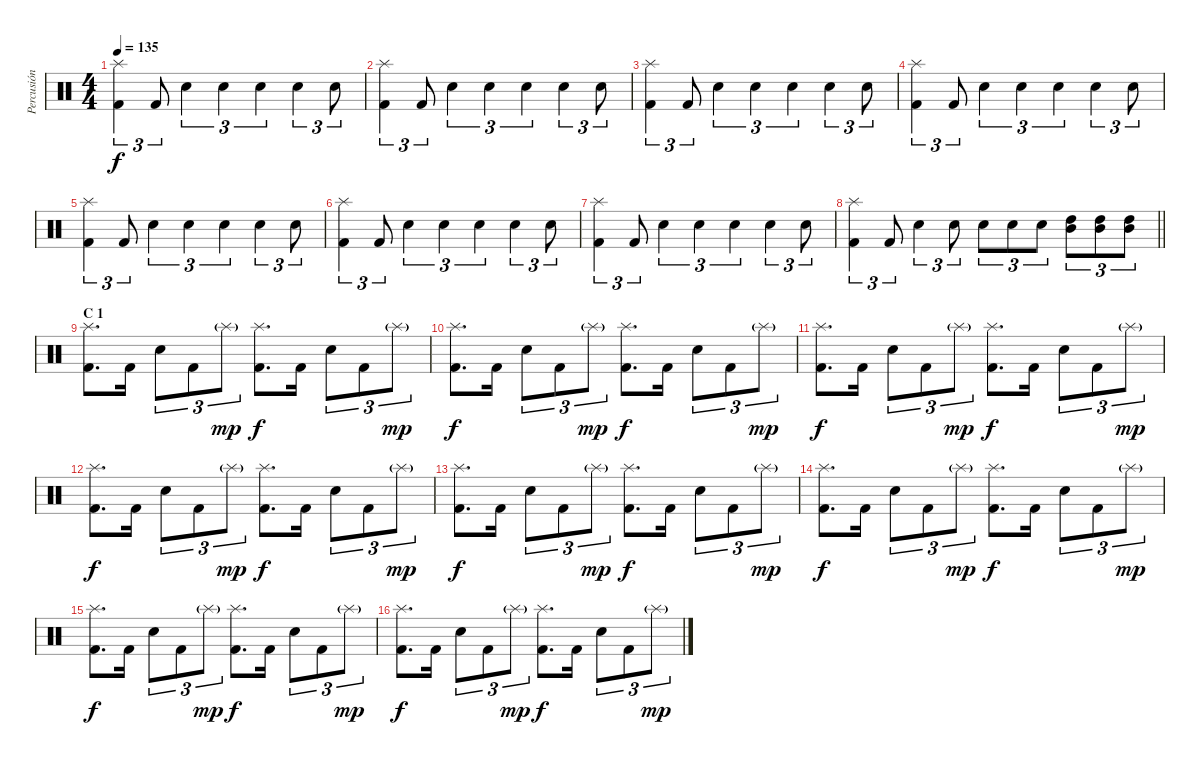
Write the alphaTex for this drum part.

\track ("Percusión" "Percusión") {instrument percussion}
\staff {score}
\articulation defaults
\ts (4 4)
\tempo 135
\clef neutral
\ks c
("Splash (hit)" "Kick (hit) 2").4{tu (3 2) dy f} "Kick (hit) 2".8{tu (3 2)} "Snare (hit) 2".4{tu (3 2)} "Snare (hit) 2".4{tu (3 2)} "Snare (hit) 2".4{tu (3 2)} "Snare (hit) 2".4{tu (3 2)} "Snare (hit) 2".8{tu (3 2)} |
("Splash (hit)" "Kick (hit) 2").4{tu (3 2)} "Kick (hit) 2".8{tu (3 2)} "Snare (hit) 2".4{tu (3 2)} "Snare (hit) 2".4{tu (3 2)} "Snare (hit) 2".4{tu (3 2)} "Snare (hit) 2".4{tu (3 2)} "Snare (hit) 2".8{tu (3 2)} |
("Splash (hit)" "Kick (hit) 2").4{tu (3 2)} "Kick (hit) 2".8{tu (3 2)} "Snare (hit) 2".4{tu (3 2)} "Snare (hit) 2".4{tu (3 2)} "Snare (hit) 2".4{tu (3 2)} "Snare (hit) 2".4{tu (3 2)} "Snare (hit) 2".8{tu (3 2)} |
("Splash (hit)" "Kick (hit) 2").4{tu (3 2)} "Kick (hit) 2".8{tu (3 2)} "Snare (hit) 2".4{tu (3 2)} "Snare (hit) 2".4{tu (3 2)} "Snare (hit) 2".4{tu (3 2)} "Snare (hit) 2".4{tu (3 2)} "Snare (hit) 2".8{tu (3 2)} |
("Splash (hit)" "Kick (hit) 2").4{tu (3 2)} "Kick (hit) 2".8{tu (3 2)} "Snare (hit) 2".4{tu (3 2)} "Snare (hit) 2".4{tu (3 2)} "Snare (hit) 2".4{tu (3 2)} "Snare (hit) 2".4{tu (3 2)} "Snare (hit) 2".8{tu (3 2)} |
("Splash (hit)" "Kick (hit) 2").4{tu (3 2)} "Kick (hit) 2".8{tu (3 2)} "Snare (hit) 2".4{tu (3 2)} "Snare (hit) 2".4{tu (3 2)} "Snare (hit) 2".4{tu (3 2)} "Snare (hit) 2".4{tu (3 2)} "Snare (hit) 2".8{tu (3 2)} |
("Splash (hit)" "Kick (hit) 2").4{tu (3 2)} "Kick (hit) 2".8{tu (3 2)} "Snare (hit) 2".4{tu (3 2)} "Snare (hit) 2".4{tu (3 2)} "Snare (hit) 2".4{tu (3 2)} "Snare (hit) 2".4{tu (3 2)} "Snare (hit) 2".8{tu (3 2)} |
\barLineRight lightlight
("Splash (hit)" "Kick (hit) 2").4{tu (3 2)} "Kick (hit) 2".8{tu (3 2)} "Snare (hit) 2".4{tu (3 2)} "Snare (hit) 2".8{tu (3 2)} "Snare (hit) 2".8{tu (3 2)} "Snare (hit) 2".8{tu (3 2)} "Snare (hit) 2".8{tu (3 2)} ("High Tom (hit)" "Mid Tom (hit)").8{tu (3 2)} ("High Tom (hit)" "Mid Tom (hit)").8{tu (3 2)} ("High Tom (hit)" "Mid Tom (hit)").8{tu (3 2)} |
\section ("" "C 1")
("Splash (hit)" "Kick (hit) 2").8{d} "Kick (hit) 2".16 "Snare (hit) 2".8{tu (3 2)} "Kick (hit) 2".8{tu (3 2)} "Splash (hit)"{g}.8{tu (3 2) dy mp} ("Splash (hit)" "Kick (hit) 2").8{d dy f} "Kick (hit) 2".16 "Snare (hit) 2".8{tu (3 2)} "Kick (hit) 2".8{tu (3 2)} "Splash (hit)"{g}.8{tu (3 2) dy mp} |
("Splash (hit)" "Kick (hit) 2").8{d dy f} "Kick (hit) 2".16 "Snare (hit) 2".8{tu (3 2)} "Kick (hit) 2".8{tu (3 2)} "Splash (hit)"{g}.8{tu (3 2) dy mp} ("Splash (hit)" "Kick (hit) 2").8{d dy f} "Kick (hit) 2".16 "Snare (hit) 2".8{tu (3 2)} "Kick (hit) 2".8{tu (3 2)} "Splash (hit)"{g}.8{tu (3 2) dy mp} |
("Splash (hit)" "Kick (hit) 2").8{d dy f} "Kick (hit) 2".16 "Snare (hit) 2".8{tu (3 2)} "Kick (hit) 2".8{tu (3 2)} "Splash (hit)"{g}.8{tu (3 2) dy mp} ("Splash (hit)" "Kick (hit) 2").8{d dy f} "Kick (hit) 2".16 "Snare (hit) 2".8{tu (3 2)} "Kick (hit) 2".8{tu (3 2)} "Splash (hit)"{g}.8{tu (3 2) dy mp} |
("Splash (hit)" "Kick (hit) 2").8{d dy f} "Kick (hit) 2".16 "Snare (hit) 2".8{tu (3 2)} "Kick (hit) 2".8{tu (3 2)} "Splash (hit)"{g}.8{tu (3 2) dy mp} ("Splash (hit)" "Kick (hit) 2").8{d dy f} "Kick (hit) 2".16 "Snare (hit) 2".8{tu (3 2)} "Kick (hit) 2".8{tu (3 2)} "Splash (hit)"{g}.8{tu (3 2) dy mp} |
("Splash (hit)" "Kick (hit) 2").8{d dy f} "Kick (hit) 2".16 "Snare (hit) 2".8{tu (3 2)} "Kick (hit) 2".8{tu (3 2)} "Splash (hit)"{g}.8{tu (3 2) dy mp} ("Splash (hit)" "Kick (hit) 2").8{d dy f} "Kick (hit) 2".16 "Snare (hit) 2".8{tu (3 2)} "Kick (hit) 2".8{tu (3 2)} "Splash (hit)"{g}.8{tu (3 2) dy mp} |
("Splash (hit)" "Kick (hit) 2").8{d dy f} "Kick (hit) 2".16 "Snare (hit) 2".8{tu (3 2)} "Kick (hit) 2".8{tu (3 2)} "Splash (hit)"{g}.8{tu (3 2) dy mp} ("Splash (hit)" "Kick (hit) 2").8{d dy f} "Kick (hit) 2".16 "Snare (hit) 2".8{tu (3 2)} "Kick (hit) 2".8{tu (3 2)} "Splash (hit)"{g}.8{tu (3 2) dy mp} |
("Splash (hit)" "Kick (hit) 2").8{d dy f} "Kick (hit) 2".16 "Snare (hit) 2".8{tu (3 2)} "Kick (hit) 2".8{tu (3 2)} "Splash (hit)"{g}.8{tu (3 2) dy mp} ("Splash (hit)" "Kick (hit) 2").8{d dy f} "Kick (hit) 2".16 "Snare (hit) 2".8{tu (3 2)} "Kick (hit) 2".8{tu (3 2)} "Splash (hit)"{g}.8{tu (3 2) dy mp} |
("Splash (hit)" "Kick (hit) 2").8{d dy f} "Kick (hit) 2".16 "Snare (hit) 2".8{tu (3 2)} "Kick (hit) 2".8{tu (3 2)} "Splash (hit)"{g}.8{tu (3 2) dy mp} ("Splash (hit)" "Kick (hit) 2").8{d dy f} "Kick (hit) 2".16 "Snare (hit) 2".8{tu (3 2)} "Kick (hit) 2".8{tu (3 2)} "Splash (hit)"{g}.8{tu (3 2) dy mp}
